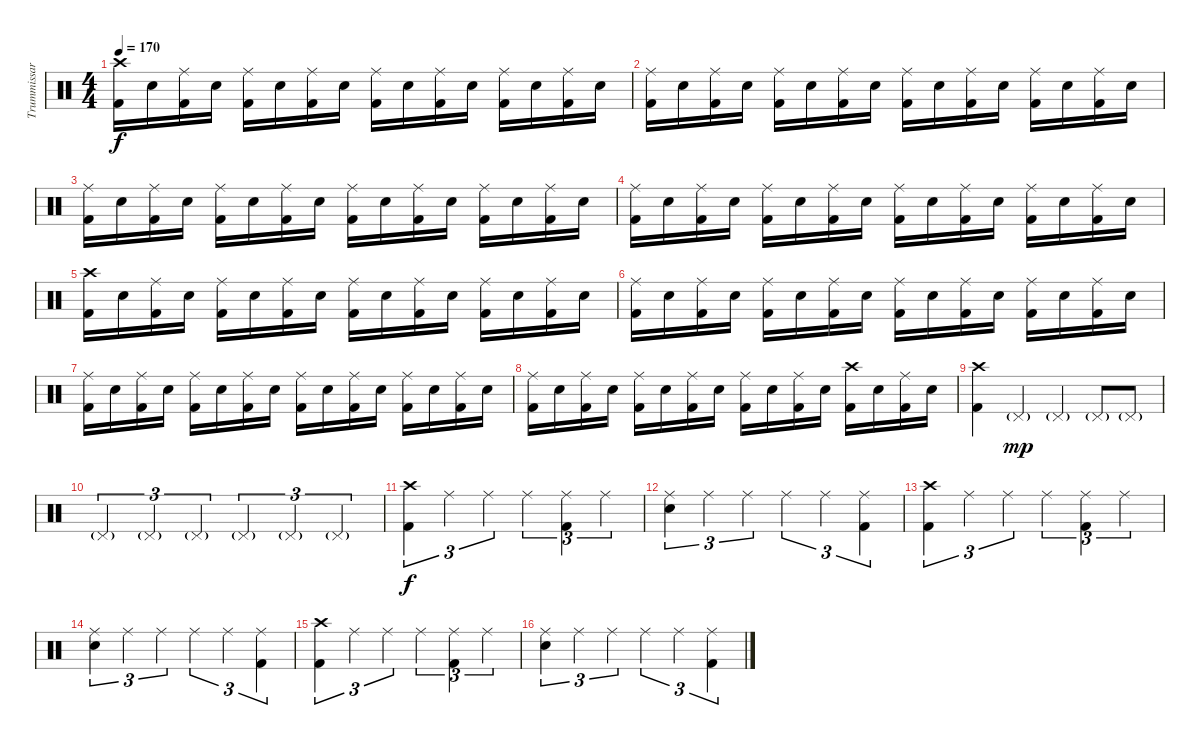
\track ("Trummissar!!" "Trummissar") {instrument percussion}
\staff {score}
\articulation defaults
\ts (4 4)
\tempo 170
\clef neutral
\ks c
("Crash high (hit)" "Kick (hit) 2").16{dy f} "Electric Snare (hit)".16 ("Ride (middle)" "Kick (hit) 2").16 "Electric Snare (hit)".16 ("Ride (middle)" "Kick (hit) 2").16 "Electric Snare (hit)".16 ("Ride (middle)" "Kick (hit) 2").16 "Electric Snare (hit)".16 ("Ride (middle)" "Kick (hit) 2").16 "Electric Snare (hit)".16 ("Ride (middle)" "Kick (hit) 2").16 "Electric Snare (hit)".16 ("Ride (middle)" "Kick (hit) 2").16 "Electric Snare (hit)".16 ("Ride (middle)" "Kick (hit) 2").16 "Electric Snare (hit)".16 |
("Ride (middle)" "Kick (hit) 2").16 "Electric Snare (hit)".16 ("Ride (middle)" "Kick (hit) 2").16 "Electric Snare (hit)".16 ("Ride (middle)" "Kick (hit) 2").16 "Electric Snare (hit)".16 ("Ride (middle)" "Kick (hit) 2").16 "Electric Snare (hit)".16 ("Ride (middle)" "Kick (hit) 2").16 "Electric Snare (hit)".16 ("Ride (middle)" "Kick (hit) 2").16 "Electric Snare (hit)".16 ("Ride (middle)" "Kick (hit) 2").16 "Electric Snare (hit)".16 ("Ride (middle)" "Kick (hit) 2").16 "Electric Snare (hit)".16 |
("Ride (middle)" "Kick (hit) 2").16 "Electric Snare (hit)".16 ("Ride (middle)" "Kick (hit) 2").16 "Electric Snare (hit)".16 ("Ride (middle)" "Kick (hit) 2").16 "Electric Snare (hit)".16 ("Ride (middle)" "Kick (hit) 2").16 "Electric Snare (hit)".16 ("Ride (middle)" "Kick (hit) 2").16 "Electric Snare (hit)".16 ("Ride (middle)" "Kick (hit) 2").16 "Electric Snare (hit)".16 ("Ride (middle)" "Kick (hit) 2").16 "Electric Snare (hit)".16 ("Ride (middle)" "Kick (hit) 2").16 "Electric Snare (hit)".16 |
("Ride (middle)" "Kick (hit) 2").16 "Electric Snare (hit)".16 ("Ride (middle)" "Kick (hit) 2").16 "Electric Snare (hit)".16 ("Ride (middle)" "Kick (hit) 2").16 "Electric Snare (hit)".16 ("Ride (middle)" "Kick (hit) 2").16 "Electric Snare (hit)".16 ("Ride (middle)" "Kick (hit) 2").16 "Electric Snare (hit)".16 ("Ride (middle)" "Kick (hit) 2").16 "Electric Snare (hit)".16 ("Ride (middle)" "Kick (hit) 2").16 "Electric Snare (hit)".16 ("Ride (middle)" "Kick (hit) 2").16 "Electric Snare (hit)".16 |
("Crash high (hit)" "Kick (hit) 2").16 "Electric Snare (hit)".16 ("Ride (middle)" "Kick (hit) 2").16 "Electric Snare (hit)".16 ("Ride (middle)" "Kick (hit) 2").16 "Electric Snare (hit)".16 ("Ride (middle)" "Kick (hit) 2").16 "Electric Snare (hit)".16 ("Ride (middle)" "Kick (hit) 2").16 "Electric Snare (hit)".16 ("Ride (middle)" "Kick (hit) 2").16 "Electric Snare (hit)".16 ("Ride (middle)" "Kick (hit) 2").16 "Electric Snare (hit)".16 ("Ride (middle)" "Kick (hit) 2").16 "Electric Snare (hit)".16 |
("Ride (middle)" "Kick (hit) 2").16 "Electric Snare (hit)".16 ("Ride (middle)" "Kick (hit) 2").16 "Electric Snare (hit)".16 ("Ride (middle)" "Kick (hit) 2").16 "Electric Snare (hit)".16 ("Ride (middle)" "Kick (hit) 2").16 "Electric Snare (hit)".16 ("Ride (middle)" "Kick (hit) 2").16 "Electric Snare (hit)".16 ("Ride (middle)" "Kick (hit) 2").16 "Electric Snare (hit)".16 ("Ride (middle)" "Kick (hit) 2").16 "Electric Snare (hit)".16 ("Ride (middle)" "Kick (hit) 2").16 "Electric Snare (hit)".16 |
("Ride (middle)" "Kick (hit) 2").16 "Electric Snare (hit)".16 ("Ride (middle)" "Kick (hit) 2").16 "Electric Snare (hit)".16 ("Ride (middle)" "Kick (hit) 2").16 "Electric Snare (hit)".16 ("Ride (middle)" "Kick (hit) 2").16 "Electric Snare (hit)".16 ("Ride (middle)" "Kick (hit) 2").16 "Electric Snare (hit)".16 ("Ride (middle)" "Kick (hit) 2").16 "Electric Snare (hit)".16 ("Ride (middle)" "Kick (hit) 2").16 "Electric Snare (hit)".16 ("Ride (middle)" "Kick (hit) 2").16 "Electric Snare (hit)".16 |
("Ride (middle)" "Kick (hit) 2").16 "Electric Snare (hit)".16 ("Ride (middle)" "Kick (hit) 2").16 "Electric Snare (hit)".16 ("Ride (middle)" "Kick (hit) 2").16 "Electric Snare (hit)".16 ("Ride (middle)" "Kick (hit) 2").16 "Electric Snare (hit)".16 ("Ride (middle)" "Kick (hit) 2").16 "Electric Snare (hit)".16 ("Ride (middle)" "Kick (hit) 2").16 "Electric Snare (hit)".16 ("Crash high (hit)" "Kick (hit) 2").16 "Electric Snare (hit)".16 ("Ride (middle)" "Kick (hit) 2").16 "Electric Snare (hit)".16 |
("Crash high (hit)" "Kick (hit) 2").4 "Pedal Hi-Hat (hit)"{g}.4{dy mp} "Pedal Hi-Hat (hit)"{g}.4 "Pedal Hi-Hat (hit)"{g}.8 "Pedal Hi-Hat (hit)"{g}.8 |
"Pedal Hi-Hat (hit)"{g}.4{tu (3 2)} "Pedal Hi-Hat (hit)"{g}.4{tu (3 2)} "Pedal Hi-Hat (hit)"{g}.4{tu (3 2)} "Pedal Hi-Hat (hit)"{g}.4{tu (3 2)} "Pedal Hi-Hat (hit)"{g}.4{tu (3 2)} "Pedal Hi-Hat (hit)"{g}.4{tu (3 2)} |
("Crash high (hit)" "Kick (hit) 2").4{tu (3 2) dy f} "Ride (middle)".4{tu (3 2)} "Ride (middle)".4{tu (3 2)} "Ride (middle)".4{tu (3 2)} ("Ride (middle)" "Kick (hit) 2").4{tu (3 2)} "Ride (middle)".4{tu (3 2)} |
("Ride (middle)" "Electric Snare (hit)").4{tu (3 2)} "Ride (middle)".4{tu (3 2)} "Ride (middle)".4{tu (3 2)} "Ride (middle)".4{tu (3 2)} "Ride (middle)".4{tu (3 2)} ("Ride (middle)" "Kick (hit) 2").4{tu (3 2)} |
("Crash high (hit)" "Kick (hit) 2").4{tu (3 2)} "Ride (middle)".4{tu (3 2)} "Ride (middle)".4{tu (3 2)} "Ride (middle)".4{tu (3 2)} ("Ride (middle)" "Kick (hit) 2").4{tu (3 2)} "Ride (middle)".4{tu (3 2)} |
("Ride (middle)" "Electric Snare (hit)").4{tu (3 2)} "Ride (middle)".4{tu (3 2)} "Ride (middle)".4{tu (3 2)} "Ride (middle)".4{tu (3 2)} "Ride (middle)".4{tu (3 2)} ("Ride (middle)" "Kick (hit) 2").4{tu (3 2)} |
("Crash high (hit)" "Kick (hit) 2").4{tu (3 2)} "Ride (middle)".4{tu (3 2)} "Ride (middle)".4{tu (3 2)} "Ride (middle)".4{tu (3 2)} ("Ride (middle)" "Kick (hit) 2").4{tu (3 2)} "Ride (middle)".4{tu (3 2)} |
("Ride (middle)" "Electric Snare (hit)").4{tu (3 2)} "Ride (middle)".4{tu (3 2)} "Ride (middle)".4{tu (3 2)} "Ride (middle)".4{tu (3 2)} "Ride (middle)".4{tu (3 2)} ("Ride (middle)" "Kick (hit) 2").4{tu (3 2)}
